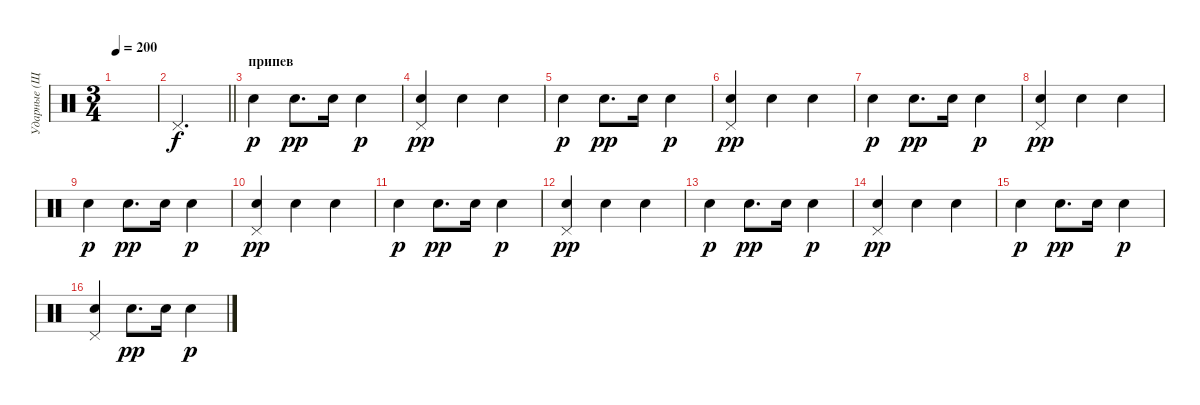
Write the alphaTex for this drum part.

\track ("Ударные (Щетками)" "Ударные (Щ") {instrument percussion}
\staff {score}
\articulation defaults
\ts (3 4)
\tempo 200
\clef neutral
\ks c
|
\barLineRight lightlight "Pedal Hi-Hat (hit)".2{d}
|
\section ("" "припев")
"Snare (hit) 2".4{dy p} "Snare (hit) 2".8{d dy pp} "Snare (hit) 2".16 "Snare (hit) 2".4{dy p} |
("Pedal Hi-Hat (hit)" "Snare (hit) 2").4{dy pp} "Snare (hit) 2".4 "Snare (hit) 2".4 |
"Snare (hit) 2".4{dy p} "Snare (hit) 2".8{d dy pp} "Snare (hit) 2".16 "Snare (hit) 2".4{dy p} |
("Pedal Hi-Hat (hit)" "Snare (hit) 2").4{dy pp} "Snare (hit) 2".4 "Snare (hit) 2".4 |
"Snare (hit) 2".4{dy p} "Snare (hit) 2".8{d dy pp} "Snare (hit) 2".16 "Snare (hit) 2".4{dy p} |
("Pedal Hi-Hat (hit)" "Snare (hit) 2").4{dy pp} "Snare (hit) 2".4 "Snare (hit) 2".4 |
"Snare (hit) 2".4{dy p} "Snare (hit) 2".8{d dy pp} "Snare (hit) 2".16 "Snare (hit) 2".4{dy p} |
("Pedal Hi-Hat (hit)" "Snare (hit) 2").4{dy pp} "Snare (hit) 2".4 "Snare (hit) 2".4 |
"Snare (hit) 2".4{dy p} "Snare (hit) 2".8{d dy pp} "Snare (hit) 2".16 "Snare (hit) 2".4{dy p} |
("Pedal Hi-Hat (hit)" "Snare (hit) 2").4{dy pp} "Snare (hit) 2".4 "Snare (hit) 2".4 |
"Snare (hit) 2".4{dy p} "Snare (hit) 2".8{d dy pp} "Snare (hit) 2".16 "Snare (hit) 2".4{dy p} |
("Pedal Hi-Hat (hit)" "Snare (hit) 2").4{dy pp} "Snare (hit) 2".4 "Snare (hit) 2".4 |
"Snare (hit) 2".4{dy p} "Snare (hit) 2".8{d dy pp} "Snare (hit) 2".16 "Snare (hit) 2".4{dy p} |
("Pedal Hi-Hat (hit)" "Snare (hit) 2").4 "Snare (hit) 2".8{d dy pp} "Snare (hit) 2".16 "Snare (hit) 2".4{dy p}
